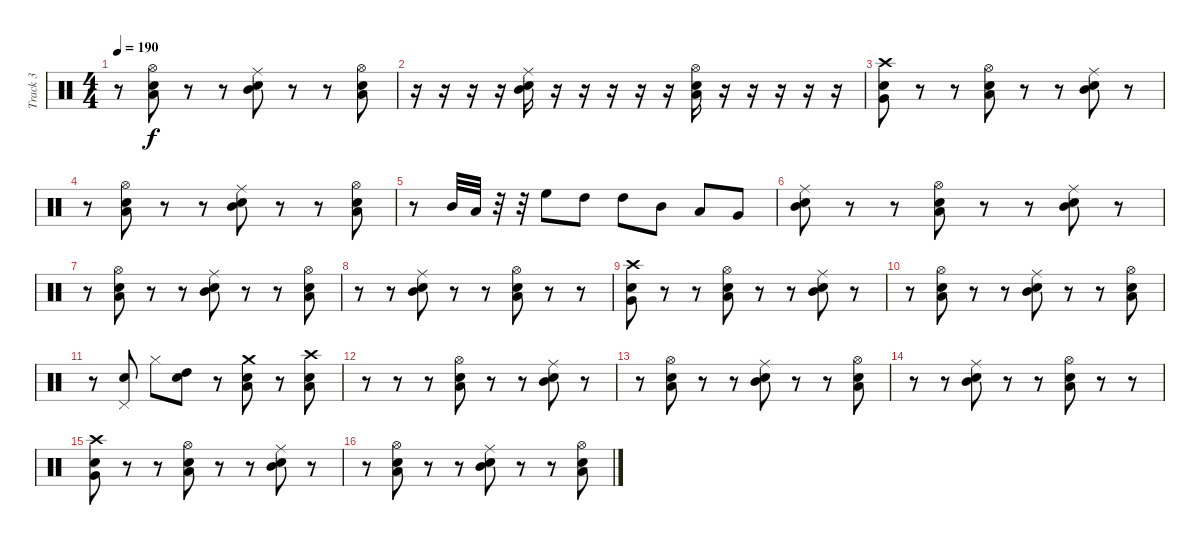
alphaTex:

\track ("Track 3" "Track 3") {instrument percussion}
\staff {score}
\articulation defaults
\ts (4 4)
\tempo 190
\clef neutral
\ks c
r.8{dy f} ("Low Tom (hit)" "Snare (hit) 2" "Hi-Hat (open)").8 r.8 r.8 ("Mid Tom (hit)" "Snare (hit) 2" "Ride (middle)").8 r.8 r.8 ("Low Tom (hit)" "Snare (hit) 2" "Hi-Hat (open)").8 |
r.16 r.16 r.16 r.16 ("Mid Tom (hit)" "Snare (hit) 2" "Ride (middle)").16 r.16 r.16 r.16 r.16 r.16 ("Low Tom (hit)" "Snare (hit) 2" "Hi-Hat (open)").16 r.16 r.16 r.16 r.16 r.16 |
("Very Low Tom (hit)" "Snare (hit) 2" "Crash high (hit)").8 r.8 r.8 ("Low Tom (hit)" "Snare (hit) 2" "Hi-Hat (open)").8 r.8 r.8 ("Mid Tom (hit)" "Snare (hit) 2" "Ride (middle)").8 r.8 |
r.8 ("Low Tom (hit)" "Snare (hit) 2" "Hi-Hat (open)").8 r.8 r.8 ("Mid Tom (hit)" "Snare (hit) 2" "Ride (middle)").8 r.8 r.8 ("Low Tom (hit)" "Snare (hit) 2" "Hi-Hat (open)").8 |
r.8 "Mid Tom (hit)".32 "Low Tom (hit)".32 r.32 r.32 "High Floor Tom (hit)".8 "High Tom (hit)".8 "High Tom (hit)".8 "Mid Tom (hit)".8 "Low Tom (hit)".8 "Very Low Tom (hit)".8 |
("Mid Tom (hit)" "Snare (hit) 2" "Ride (middle)").8 r.8 r.8 ("Low Tom (hit)" "Snare (hit) 2" "Hi-Hat (open)").8 r.8 r.8 ("Mid Tom (hit)" "Snare (hit) 2" "Ride (middle)").8 r.8 |
r.8 ("Low Tom (hit)" "Snare (hit) 2" "Hi-Hat (open)").8 r.8 r.8 ("Mid Tom (hit)" "Snare (hit) 2" "Ride (middle)").8 r.8 r.8 ("Low Tom (hit)" "Snare (hit) 2" "Hi-Hat (open)").8 |
r.8 r.8 ("Mid Tom (hit)" "Snare (hit) 2" "Ride (middle)").8 r.8 r.8 ("Low Tom (hit)" "Snare (hit) 2" "Hi-Hat (open)").8 r.8 r.8 |
("Very Low Tom (hit)" "Snare (hit) 2" "Crash high (hit)").8 r.8 r.8 ("Low Tom (hit)" "Snare (hit) 2" "Hi-Hat (open)").8 r.8 r.8 ("Mid Tom (hit)" "Snare (hit) 2" "Ride (middle)").8 r.8 |
r.8 ("Low Tom (hit)" "Snare (hit) 2" "Hi-Hat (open)").8 r.8 r.8 ("Mid Tom (hit)" "Snare (hit) 2" "Ride (middle)").8 r.8 r.8 ("Low Tom (hit)" "Snare (hit) 2" "Hi-Hat (open)").8 |
r.8 ("Pedal Hi-Hat (hit)" "Snare (hit) 2").8 "Hi-Hat (closed)".8 ("Electric Snare (hit)" "High Tom (hit)").8 r.8 ("Electric Snare (hit)" "Low Tom (hit)" "Crash medium (hit)").8 r.8 ("Low Tom (hit)" "Snare (hit) 2" "Crash high (hit)").8 |
r.8 r.8 r.8 ("Low Tom (hit)" "Snare (hit) 2" "Hi-Hat (open)").8 r.8 r.8 ("Mid Tom (hit)" "Snare (hit) 2" "Ride (middle)").8 r.8 |
r.8 ("Low Tom (hit)" "Snare (hit) 2" "Hi-Hat (open)").8 r.8 r.8 ("Mid Tom (hit)" "Snare (hit) 2" "Ride (middle)").8 r.8 r.8 ("Low Tom (hit)" "Snare (hit) 2" "Hi-Hat (open)").8 |
r.8 r.8 ("Mid Tom (hit)" "Snare (hit) 2" "Ride (middle)").8 r.8 r.8 ("Low Tom (hit)" "Snare (hit) 2" "Hi-Hat (open)").8 r.8 r.8 |
("Very Low Tom (hit)" "Snare (hit) 2" "Crash high (hit)").8 r.8 r.8 ("Low Tom (hit)" "Snare (hit) 2" "Hi-Hat (open)").8 r.8 r.8 ("Mid Tom (hit)" "Snare (hit) 2" "Ride (middle)").8 r.8 |
r.8 ("Low Tom (hit)" "Snare (hit) 2" "Hi-Hat (open)").8 r.8 r.8 ("Mid Tom (hit)" "Snare (hit) 2" "Ride (middle)").8 r.8 r.8 ("Low Tom (hit)" "Snare (hit) 2" "Hi-Hat (open)").8
